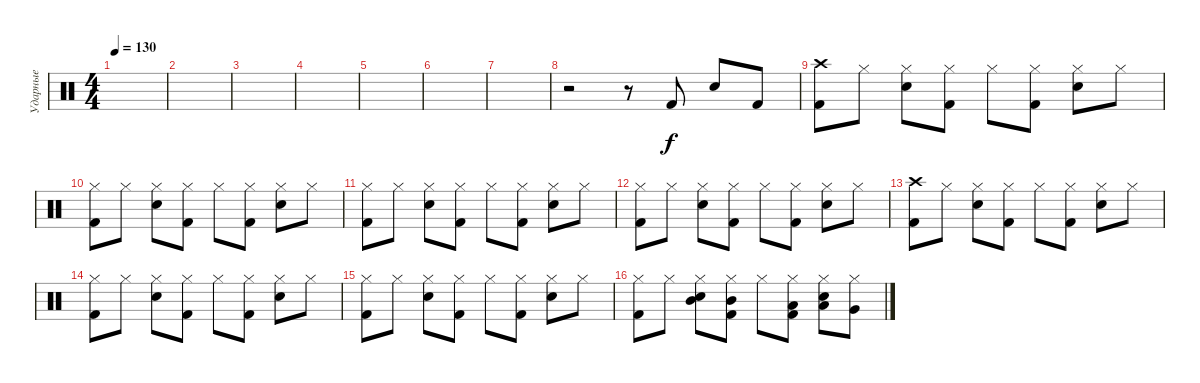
\track ("Ударные" "Ударные") {instrument percussion}
\staff {score}
\articulation defaults
\ts (4 4)
\tempo 130
\clef neutral
\ks c
|
|
|
|
|
|
|
r.2 r.8 "Kick (hit) 2".8 "Electric Snare (hit)".8 "Kick (hit) 2".8 |
("Crash high (hit)" "Kick (hit) 2").8 "Hi-Hat (closed)".8 ("Hi-Hat (closed)" "Snare (hit) 2").8 ("Hi-Hat (closed)" "Kick (hit) 2").8 "Hi-Hat (closed)".8 ("Hi-Hat (closed)" "Kick (hit) 2").8 ("Hi-Hat (closed)" "Snare (hit) 2").8 "Hi-Hat (closed)".8 |
("Hi-Hat (closed)" "Kick (hit) 2").8 "Hi-Hat (closed)".8 ("Hi-Hat (closed)" "Snare (hit) 2").8 ("Hi-Hat (closed)" "Kick (hit) 2").8 "Hi-Hat (closed)".8 ("Hi-Hat (closed)" "Kick (hit) 2").8 ("Hi-Hat (closed)" "Snare (hit) 2").8 "Hi-Hat (closed)".8 |
("Hi-Hat (closed)" "Kick (hit) 2").8 "Hi-Hat (closed)".8 ("Hi-Hat (closed)" "Snare (hit) 2").8 ("Hi-Hat (closed)" "Kick (hit) 2").8 "Hi-Hat (closed)".8 ("Hi-Hat (closed)" "Kick (hit) 2").8 ("Hi-Hat (closed)" "Snare (hit) 2").8 "Hi-Hat (closed)".8 |
("Hi-Hat (closed)" "Kick (hit) 2").8 "Hi-Hat (closed)".8 ("Hi-Hat (closed)" "Snare (hit) 2").8 ("Hi-Hat (closed)" "Kick (hit) 2").8 "Hi-Hat (closed)".8 ("Hi-Hat (closed)" "Kick (hit) 2").8 ("Hi-Hat (closed)" "Snare (hit) 2").8 "Hi-Hat (closed)".8 |
("Crash high (hit)" "Kick (hit) 2").8 "Hi-Hat (closed)".8 ("Hi-Hat (closed)" "Snare (hit) 2").8 ("Hi-Hat (closed)" "Kick (hit) 2").8 "Hi-Hat (closed)".8 ("Hi-Hat (closed)" "Kick (hit) 2").8 ("Hi-Hat (closed)" "Snare (hit) 2").8 "Hi-Hat (closed)".8 |
("Hi-Hat (closed)" "Kick (hit) 2").8 "Hi-Hat (closed)".8 ("Hi-Hat (closed)" "Snare (hit) 2").8 ("Hi-Hat (closed)" "Kick (hit) 2").8 "Hi-Hat (closed)".8 ("Hi-Hat (closed)" "Kick (hit) 2").8 ("Hi-Hat (closed)" "Snare (hit) 2").8 "Hi-Hat (closed)".8 |
("Hi-Hat (closed)" "Kick (hit) 2").8 "Hi-Hat (closed)".8 ("Hi-Hat (closed)" "Snare (hit) 2").8 ("Hi-Hat (closed)" "Kick (hit) 2").8 "Hi-Hat (closed)".8 ("Hi-Hat (closed)" "Kick (hit) 2").8 ("Hi-Hat (closed)" "Snare (hit) 2").8 "Hi-Hat (closed)".8 |
("Hi-Hat (closed)" "Kick (hit) 2").8 "Hi-Hat (closed)".8 ("Hi-Hat (closed)" "Snare (hit) 2" "Mid Tom (hit)").8 ("Hi-Hat (closed)" "Kick (hit) 2" "Mid Tom (hit)").8 "Hi-Hat (closed)".8 ("Hi-Hat (closed)" "Kick (hit) 2" "Low Tom (hit)").8 ("Hi-Hat (closed)" "Snare (hit) 2" "Low Tom (hit)").8 ("Hi-Hat (closed)" "Very Low Tom (hit)").8
